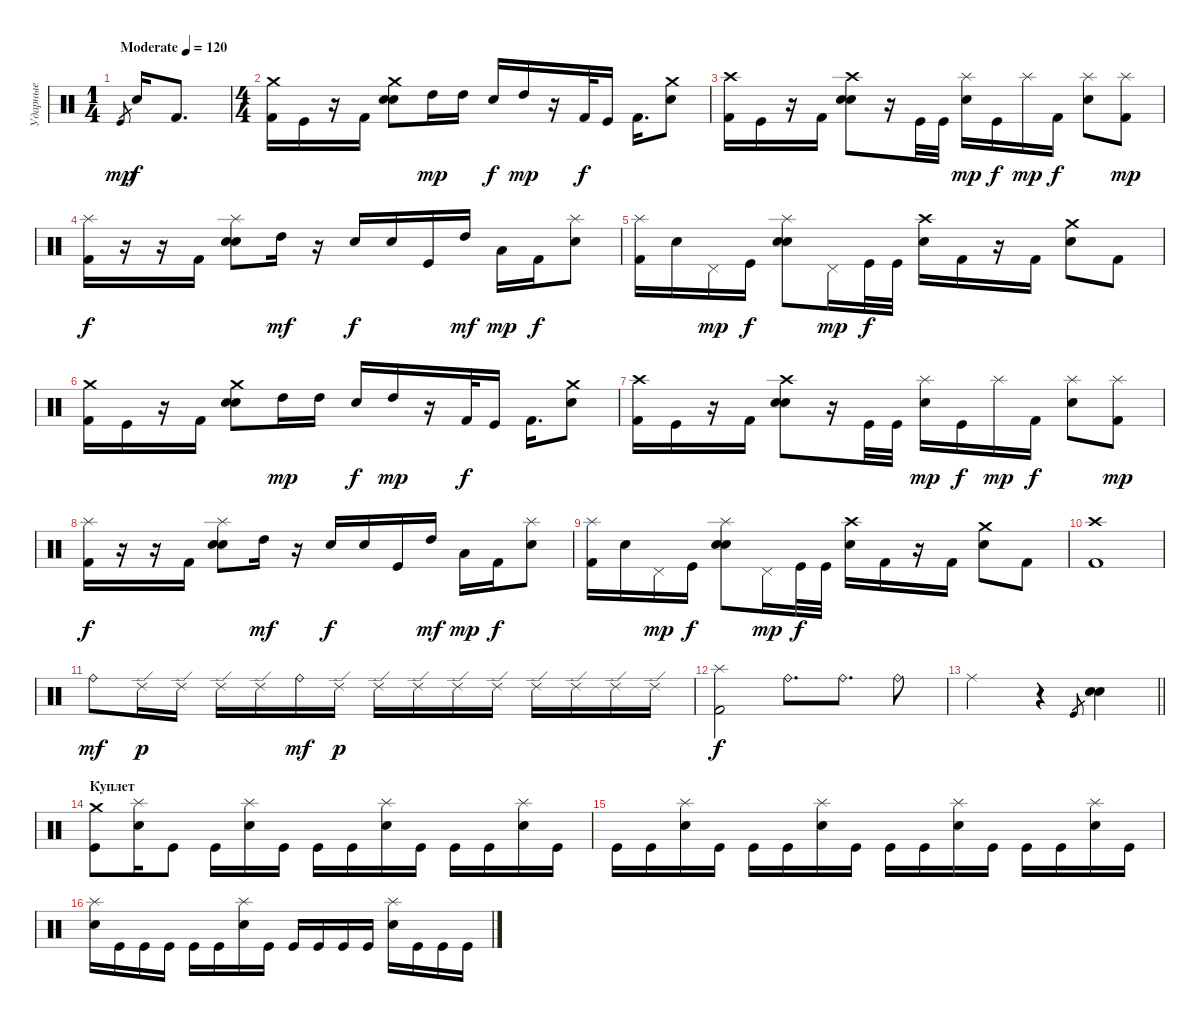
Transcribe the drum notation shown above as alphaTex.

\track ("Ударные" "Ударные") {instrument percussion}
\staff {score}
\articulation defaults
\ts (1 4)
\tempo (120 "Moderate")
\clef neutral
\ks c "Kick (hit)".8{gr dy mp} "Electric Snare (hit)".16{dy f} "Kick (hit) 2".8{d}
|
\ts (4 4)
("Crash medium (hit)" "Kick (hit) 2").16 "Kick (hit)".16 r.16 "Kick (hit) 2".16 ("Crash medium (hit)" "Electric Snare (hit)" "Snare (hit) 2").8 "High Tom (hit)".16{dy mp} "High Tom (hit)".16 "Electric Snare (hit)".16{dy f} "High Tom (hit)".16{dy mp} r.16 "Kick (hit) 2".32{dy f} "Kick (hit)".16 "Kick (hit) 2".16{d} ("Crash medium (hit)" "Electric Snare (hit)").8 |
("Crash high (hit)" "Kick (hit) 2").16 "Kick (hit)".16 r.16 "Kick (hit) 2".16 ("Crash high (hit)" "Electric Snare (hit)" "Snare (hit) 2").8 r.16 "Kick (hit)".32 "Kick (hit)".32 ("Splash (hit)" "Electric Snare (hit)").16{dy mp} "Kick (hit)".16{dy f} "Splash (hit)".16{dy mp} "Kick (hit) 2".16{dy f} ("Splash (hit)" "Electric Snare (hit)").8 ("Splash (hit)" "Kick (hit) 2").8{dy mp} |
("Splash (hit)" "Kick (hit) 2").16{dy f} r.16 r.16 "Kick (hit) 2".16 ("Splash (hit)" "Electric Snare (hit)" "Snare (hit) 2").8 "High Tom (hit)".16{dy mf} r.16 "Electric Snare (hit)".16{dy f} "Electric Snare (hit)".16 "Kick (hit)".16 "High Tom (hit)".16{dy mf} "Low Tom (hit)".16{dy mp} "Kick (hit) 2".16{dy f} ("Splash (hit)" "Electric Snare (hit)").8 |
("Splash (hit)" "Kick (hit) 2").16 "Electric Snare (hit)".16 "Pedal Hi-Hat (hit)".16{dy mp} "Kick (hit)".16{dy f} ("Splash (hit)" "Electric Snare (hit)" "Snare (hit) 2").8 "Pedal Hi-Hat (hit)".16{dy mp} "Kick (hit)".32{dy f} "Kick (hit)".32 ("Crash high (hit)" "Electric Snare (hit)").16 "Kick (hit) 2".16 r.16 "Kick (hit) 2".16 ("Crash medium (hit)" "Electric Snare (hit)").8 "Kick (hit) 2".8 |
("Crash medium (hit)" "Kick (hit) 2").16 "Kick (hit)".16 r.16 "Kick (hit) 2".16 ("Crash medium (hit)" "Electric Snare (hit)" "Snare (hit) 2").8 "High Tom (hit)".16{dy mp} "High Tom (hit)".16 "Electric Snare (hit)".16{dy f} "High Tom (hit)".16{dy mp} r.16 "Kick (hit) 2".32{dy f} "Kick (hit)".16 "Kick (hit) 2".16{d} ("Crash medium (hit)" "Electric Snare (hit)").8 |
("Crash high (hit)" "Kick (hit) 2").16 "Kick (hit)".16 r.16 "Kick (hit) 2".16 ("Crash high (hit)" "Electric Snare (hit)" "Snare (hit) 2").8 r.16 "Kick (hit)".32 "Kick (hit)".32 ("Splash (hit)" "Electric Snare (hit)").16{dy mp} "Kick (hit)".16{dy f} "Splash (hit)".16{dy mp} "Kick (hit) 2".16{dy f} ("Splash (hit)" "Electric Snare (hit)").8 ("Splash (hit)" "Kick (hit) 2").8{dy mp} |
("Splash (hit)" "Kick (hit) 2").16{dy f} r.16 r.16 "Kick (hit) 2".16 ("Splash (hit)" "Electric Snare (hit)" "Snare (hit) 2").8 "High Tom (hit)".16{dy mf} r.16 "Electric Snare (hit)".16{dy f} "Electric Snare (hit)".16 "Kick (hit)".16 "High Tom (hit)".16{dy mf} "Low Tom (hit)".16{dy mp} "Kick (hit) 2".16{dy f} ("Splash (hit)" "Electric Snare (hit)").8 |
("Splash (hit)" "Kick (hit) 2").16 "Electric Snare (hit)".16 "Pedal Hi-Hat (hit)".16{dy mp} "Kick (hit)".16{dy f} ("Splash (hit)" "Electric Snare (hit)" "Snare (hit) 2").8 "Pedal Hi-Hat (hit)".16{dy mp} "Kick (hit)".32{dy f} "Kick (hit)".32 ("Crash high (hit)" "Electric Snare (hit)").16 "Kick (hit) 2".16 r.16 "Kick (hit) 2".16 ("Crash medium (hit)" "Electric Snare (hit)").8 "Kick (hit) 2".8 |
("Crash high (hit)" "Kick (hit) 2").1 |
"Ride (bell)".8{dy mf} "Ride (edge) 2".16{dy p} "Ride (edge) 2".16 "Ride (edge) 2".16 "Ride (edge) 2".16 "Ride (bell)".16{dy mf} "Ride (edge) 2".16{dy p} "Ride (edge) 2".16 "Ride (edge) 2".16 "Ride (edge) 2".16 "Ride (edge) 2".16 "Ride (edge) 2".16 "Ride (edge) 2".16 "Ride (edge) 2".16 "Ride (edge) 2".16 |
("Splash (hit)" "Kick (hit) 2").2{dy f} "Ride (bell)".8{d} "Ride (bell)".8{d} "Ride (bell)".8 |
\barLineRight lightlight "Ride (middle)".2
r.4 "Kick (hit)".8{gr} ("Electric Snare (hit)" "Snare (hit) 2").4 |
\section ("" "Куплет")
("Crash medium (hit)" "Kick (hit)").8 ("Splash (hit)" "Electric Snare (hit)").16 "Kick (hit)".8 "Kick (hit)".16 ("Splash (hit)" "Electric Snare (hit)").16 "Kick (hit)".16 "Kick (hit)".16 "Kick (hit)".16 ("Splash (hit)" "Electric Snare (hit)").16 "Kick (hit)".16 "Kick (hit)".16 "Kick (hit)".16 ("Splash (hit)" "Electric Snare (hit)").16 "Kick (hit)".16 |
"Kick (hit)".16 "Kick (hit)".16 ("Splash (hit)" "Electric Snare (hit)").16 "Kick (hit)".16 "Kick (hit)".16 "Kick (hit)".16 ("Splash (hit)" "Electric Snare (hit)").16 "Kick (hit)".16 "Kick (hit)".16 "Kick (hit)".16 ("Splash (hit)" "Electric Snare (hit)").16 "Kick (hit)".16 "Kick (hit)".16 "Kick (hit)".16 ("Splash (hit)" "Electric Snare (hit)").16 "Kick (hit)".16 |
("Splash (hit)" "Electric Snare (hit)").16 "Kick (hit)".16 "Kick (hit)".16 "Kick (hit)".16 "Kick (hit)".16 "Kick (hit)".16 ("Splash (hit)" "Electric Snare (hit)").16 "Kick (hit)".16 "Kick (hit)".16 "Kick (hit)".16 "Kick (hit)".16 "Kick (hit)".16 ("Splash (hit)" "Electric Snare (hit)").16 "Kick (hit)".16 "Kick (hit)".16 "Kick (hit)".16
